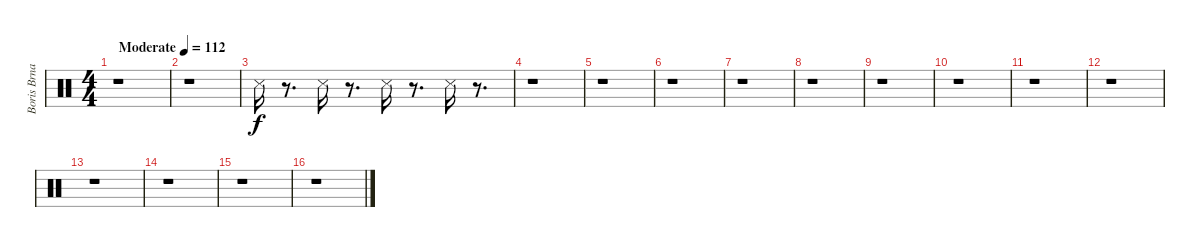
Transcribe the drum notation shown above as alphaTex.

\track ("Boris Brna (Drums)" "Boris Brna") {instrument percussion}
\staff {score}
\articulation defaults
\ts (4 4)
\tempo (112 "Moderate")
\clef neutral
\ks c
r.1{dy f} |
r.1 |
"Snare (side stick) 3".16 r.8{d} "Snare (side stick) 3".16 r.8{d} "Snare (side stick) 3".16 r.8{d} "Snare (side stick) 3".16 r.8{d} |
r.1 |
r.1 |
r.1 |
r.1 |
r.1 |
r.1 |
r.1 |
r.1 |
r.1 |
r.1 |
r.1 |
r.1 |
r.1
